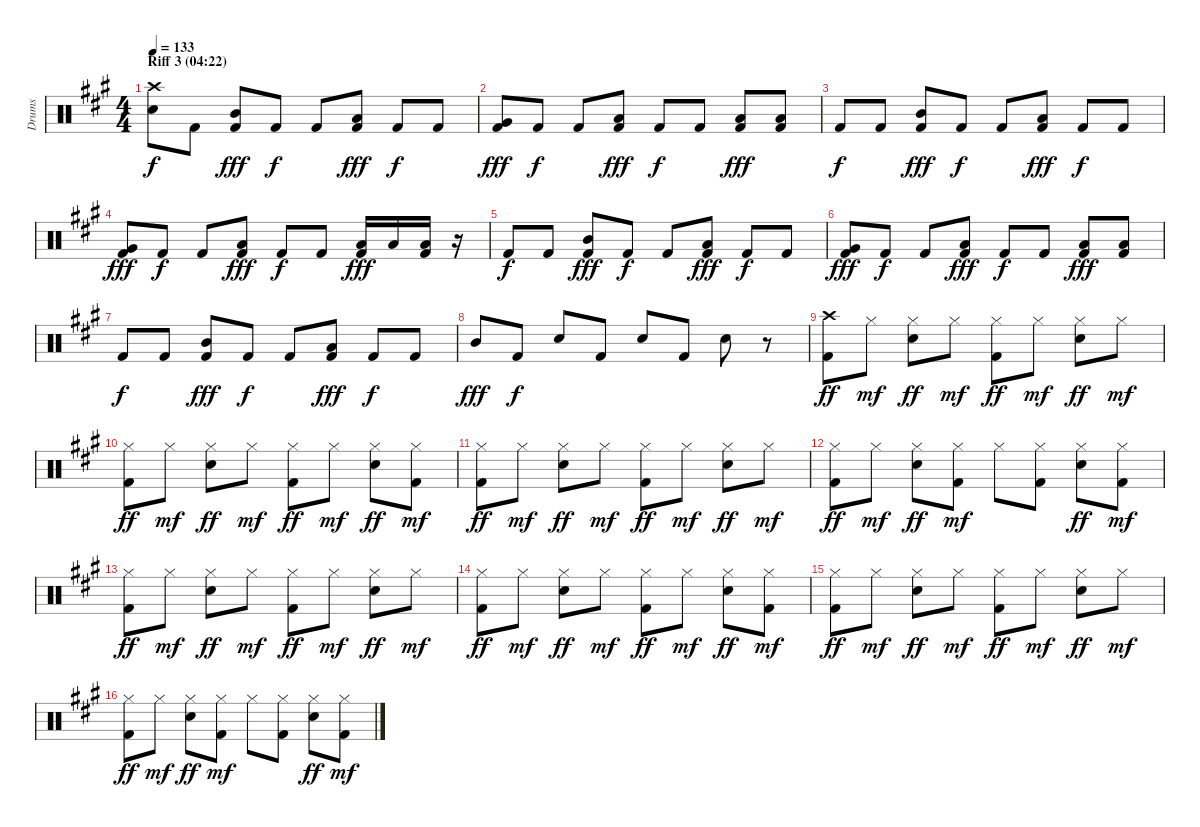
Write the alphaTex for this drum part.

\track ("Drums" "Drums") {instrument percussion}
\staff {score}
\articulation defaults
\ts (4 4)
\section ("" "Riff 3 (04:22)")
\tempo 133
\clef neutral
\ks a
("Crash high (hit)" "Snare (hit) 2").8{dy f} "Kick (hit) 2".8 ("Mid Tom (hit)" "Kick (hit) 2").8{dy fff} "Kick (hit) 2".8{dy f} "Kick (hit) 2".8 ("Low Tom (hit)" "Kick (hit) 2").8{dy fff} "Kick (hit) 2".8{dy f} "Kick (hit) 2".8 |
("Very Low Tom (hit)" "Kick (hit) 2").8{dy fff} "Kick (hit) 2".8{dy f} "Kick (hit) 2".8 ("Low Floor Tom (hit)" "Kick (hit) 2").8{dy fff} "Kick (hit) 2".8{dy f} "Kick (hit) 2".8 ("Low Tom (hit)" "Kick (hit) 2").8{dy fff} ("Low Tom (hit)" "Kick (hit) 2").8 |
"Kick (hit) 2".8{dy f} "Kick (hit) 2".8 ("Mid Tom (hit)" "Kick (hit) 2").8{dy fff} "Kick (hit) 2".8{dy f} "Kick (hit) 2".8 ("Low Tom (hit)" "Kick (hit) 2").8{dy fff} "Kick (hit) 2".8{dy f} "Kick (hit) 2".8 |
("Very Low Tom (hit)" "Kick (hit) 2").8{dy fff} "Kick (hit) 2".8{dy f} "Kick (hit) 2".8 ("Low Floor Tom (hit)" "Kick (hit) 2").8{dy fff} "Kick (hit) 2".8{dy f} "Kick (hit) 2".8 ("Low Tom (hit)" "Kick (hit) 2").16{dy fff} "Low Tom (hit)".16 ("Low Tom (hit)" "Kick (hit) 2").16 r.16 |
"Kick (hit) 2".8{dy f} "Kick (hit) 2".8 ("Mid Tom (hit)" "Kick (hit) 2").8{dy fff} "Kick (hit) 2".8{dy f} "Kick (hit) 2".8 ("Low Tom (hit)" "Kick (hit) 2").8{dy fff} "Kick (hit) 2".8{dy f} "Kick (hit) 2".8 |
("Very Low Tom (hit)" "Kick (hit) 2").8{dy fff} "Kick (hit) 2".8{dy f} "Kick (hit) 2".8 ("Low Floor Tom (hit)" "Kick (hit) 2").8{dy fff} "Kick (hit) 2".8{dy f} "Kick (hit) 2".8 ("Low Tom (hit)" "Kick (hit) 2").8{dy fff} ("Low Tom (hit)" "Kick (hit) 2").8 |
"Kick (hit) 2".8{dy f} "Kick (hit) 2".8 ("Mid Tom (hit)" "Kick (hit) 2").8{dy fff} "Kick (hit) 2".8{dy f} "Kick (hit) 2".8 ("Low Tom (hit)" "Kick (hit) 2").8{dy fff} "Kick (hit) 2".8{dy f} "Kick (hit) 2".8 |
"Mid Tom (hit)".8{dy fff} "Kick (hit) 2".8{dy f} "Snare (hit) 2".8 "Kick (hit) 2".8 "Snare (hit) 2".8 "Kick (hit) 2".8 "Snare (hit) 2".8 r.8 |
("Crash high (hit)" "Kick (hit) 2").8{dy ff} "Hi-Hat (closed)".8{dy mf} ("Hi-Hat (closed)" "Snare (hit) 2").8{dy ff} "Hi-Hat (closed)".8{dy mf} ("Hi-Hat (closed)" "Kick (hit) 2").8{dy ff} "Hi-Hat (closed)".8{dy mf} ("Hi-Hat (closed)" "Snare (hit) 2").8{dy ff} "Hi-Hat (closed)".8{dy mf} |
("Hi-Hat (closed)" "Kick (hit) 2").8{dy ff} "Hi-Hat (closed)".8{dy mf} ("Hi-Hat (closed)" "Snare (hit) 2").8{dy ff} "Hi-Hat (closed)".8{dy mf} ("Hi-Hat (closed)" "Kick (hit) 2").8{dy ff} "Hi-Hat (closed)".8{dy mf} ("Hi-Hat (closed)" "Snare (hit) 2").8{dy ff} ("Hi-Hat (closed)" "Kick (hit) 2").8{dy mf} |
("Hi-Hat (closed)" "Kick (hit) 2").8{dy ff} "Hi-Hat (closed)".8{dy mf} ("Hi-Hat (closed)" "Snare (hit) 2").8{dy ff} "Hi-Hat (closed)".8{dy mf} ("Hi-Hat (closed)" "Kick (hit) 2").8{dy ff} "Hi-Hat (closed)".8{dy mf} ("Hi-Hat (closed)" "Snare (hit) 2").8{dy ff} "Hi-Hat (closed)".8{dy mf} |
("Hi-Hat (closed)" "Kick (hit) 2").8{dy ff} "Hi-Hat (closed)".8{dy mf} ("Hi-Hat (closed)" "Snare (hit) 2").8{dy ff} ("Hi-Hat (closed)" "Kick (hit) 2").8{dy mf} "Hi-Hat (closed)".8 ("Hi-Hat (closed)" "Kick (hit) 2").8 ("Hi-Hat (closed)" "Snare (hit) 2").8{dy ff} ("Hi-Hat (closed)" "Kick (hit) 2").8{dy mf} |
("Hi-Hat (closed)" "Kick (hit) 2").8{dy ff} "Hi-Hat (closed)".8{dy mf} ("Hi-Hat (closed)" "Snare (hit) 2").8{dy ff} "Hi-Hat (closed)".8{dy mf} ("Hi-Hat (closed)" "Kick (hit) 2").8{dy ff} "Hi-Hat (closed)".8{dy mf} ("Hi-Hat (closed)" "Snare (hit) 2").8{dy ff} "Hi-Hat (closed)".8{dy mf} |
("Hi-Hat (closed)" "Kick (hit) 2").8{dy ff} "Hi-Hat (closed)".8{dy mf} ("Hi-Hat (closed)" "Snare (hit) 2").8{dy ff} "Hi-Hat (closed)".8{dy mf} ("Hi-Hat (closed)" "Kick (hit) 2").8{dy ff} "Hi-Hat (closed)".8{dy mf} ("Hi-Hat (closed)" "Snare (hit) 2").8{dy ff} ("Hi-Hat (closed)" "Kick (hit) 2").8{dy mf} |
("Hi-Hat (closed)" "Kick (hit) 2").8{dy ff} "Hi-Hat (closed)".8{dy mf} ("Hi-Hat (closed)" "Snare (hit) 2").8{dy ff} "Hi-Hat (closed)".8{dy mf} ("Hi-Hat (closed)" "Kick (hit) 2").8{dy ff} "Hi-Hat (closed)".8{dy mf} ("Hi-Hat (closed)" "Snare (hit) 2").8{dy ff} "Hi-Hat (closed)".8{dy mf} |
("Hi-Hat (closed)" "Kick (hit) 2").8{dy ff} "Hi-Hat (closed)".8{dy mf} ("Hi-Hat (closed)" "Snare (hit) 2").8{dy ff} ("Hi-Hat (closed)" "Kick (hit) 2").8{dy mf} "Hi-Hat (closed)".8 ("Hi-Hat (closed)" "Kick (hit) 2").8 ("Hi-Hat (closed)" "Snare (hit) 2").8{dy ff} ("Hi-Hat (closed)" "Kick (hit) 2").8{dy mf}
